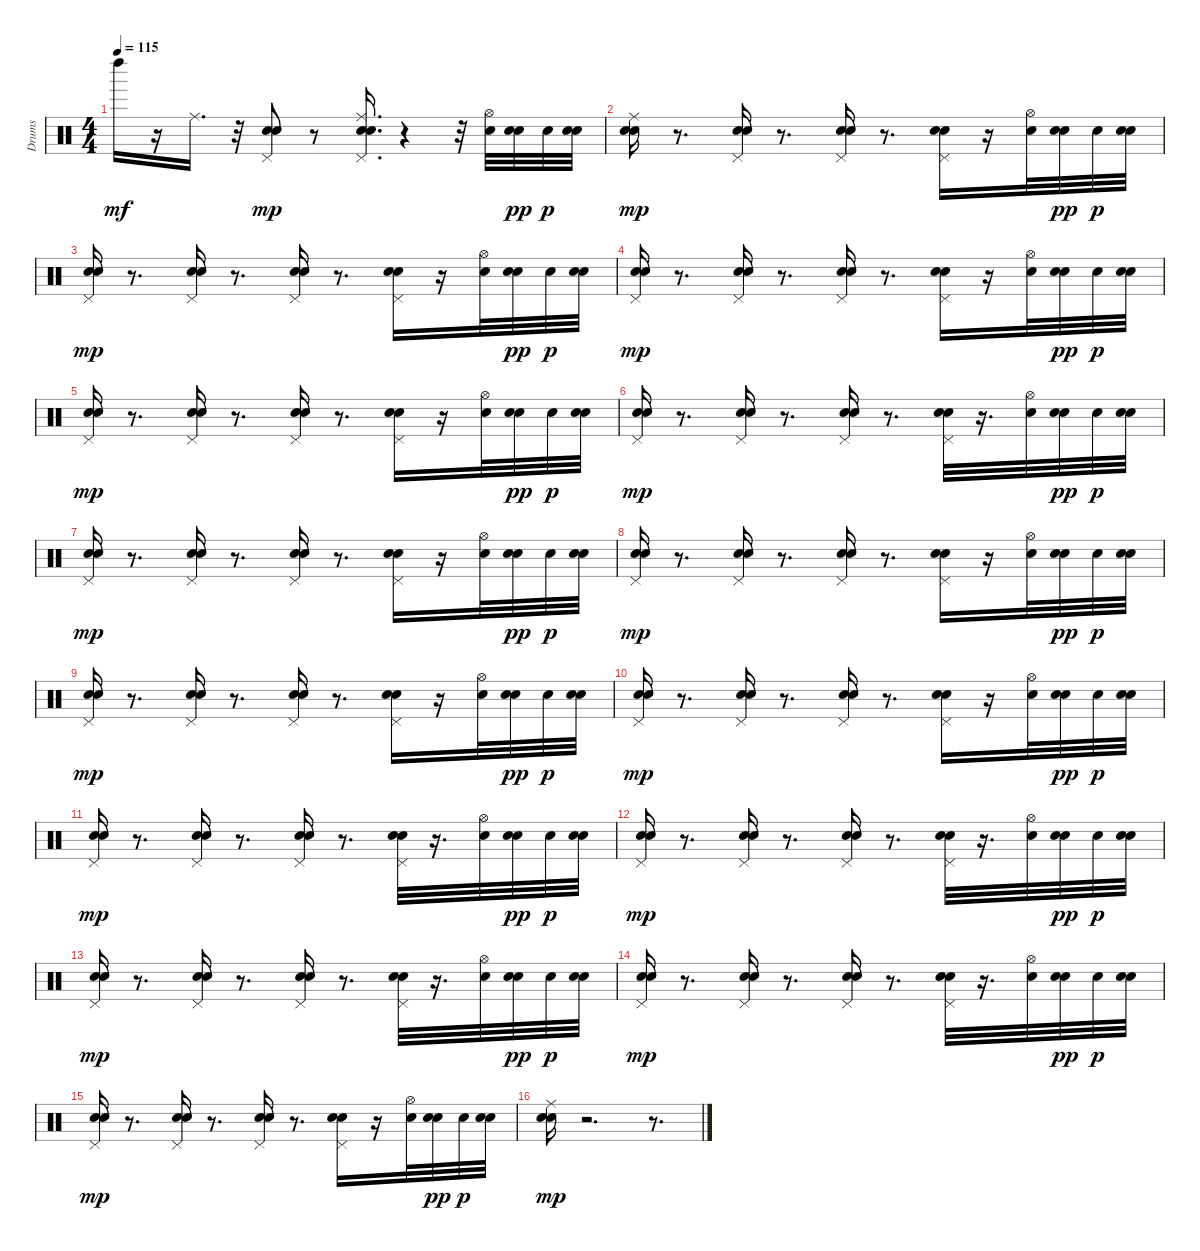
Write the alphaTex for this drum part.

\track ("Drums" "Drums") {instrument percussion}
\staff {score}
\articulation defaults
\ts (4 4)
\tempo 115
\clef neutral
\ks c "Left Maraca (hit)".16{dy mf}
r.16 "Ride (middle)".16{d} r.32 ("Snare (hit) 2" "Snare (hit) 2" "Pedal Hi-Hat (hit)").8{dy mp} r.8 ("Snare (hit) 2" "Snare (hit) 2" "Pedal Hi-Hat (hit)" "Ride (middle)").16{d} r.4 r.32 ("Snare (hit) 2" "Hi-Hat (open)").32 ("Snare (hit) 2" "Snare (hit) 2").32{dy pp} "Snare (hit) 2".32{dy p} ("Snare (hit) 2" "Snare (hit) 2").32 |
("Snare (hit) 2" "Snare (hit) 2" "Ride (middle)").16{dy mp} r.8{d} ("Snare (hit) 2" "Snare (hit) 2" "Pedal Hi-Hat (hit)").16 r.8{d} ("Snare (hit) 2" "Snare (hit) 2" "Pedal Hi-Hat (hit)").16 r.8{d} ("Snare (hit) 2" "Snare (hit) 2" "Pedal Hi-Hat (hit)").16 r.16 ("Snare (hit) 2" "Hi-Hat (open)").32 ("Snare (hit) 2" "Snare (hit) 2").32{dy pp} "Snare (hit) 2".32{dy p} ("Snare (hit) 2" "Snare (hit) 2").32 |
("Snare (hit) 2" "Snare (hit) 2" "Pedal Hi-Hat (hit)").16{dy mp} r.8{d} ("Snare (hit) 2" "Snare (hit) 2" "Pedal Hi-Hat (hit)").16 r.8{d} ("Snare (hit) 2" "Snare (hit) 2" "Pedal Hi-Hat (hit)").16 r.8{d} ("Snare (hit) 2" "Snare (hit) 2" "Pedal Hi-Hat (hit)").16 r.16 ("Snare (hit) 2" "Hi-Hat (open)").32 ("Snare (hit) 2" "Snare (hit) 2").32{dy pp} "Snare (hit) 2".32{dy p} ("Snare (hit) 2" "Snare (hit) 2").32 |
("Snare (hit) 2" "Snare (hit) 2" "Pedal Hi-Hat (hit)").16{dy mp} r.8{d} ("Snare (hit) 2" "Snare (hit) 2" "Pedal Hi-Hat (hit)").16 r.8{d} ("Snare (hit) 2" "Snare (hit) 2" "Pedal Hi-Hat (hit)").16 r.8{d} ("Snare (hit) 2" "Snare (hit) 2" "Pedal Hi-Hat (hit)").16 r.16 ("Snare (hit) 2" "Hi-Hat (open)").32 ("Snare (hit) 2" "Snare (hit) 2").32{dy pp} "Snare (hit) 2".32{dy p} ("Snare (hit) 2" "Snare (hit) 2").32 |
("Snare (hit) 2" "Snare (hit) 2" "Pedal Hi-Hat (hit)").16{dy mp} r.8{d} ("Snare (hit) 2" "Snare (hit) 2" "Pedal Hi-Hat (hit)").16 r.8{d} ("Snare (hit) 2" "Snare (hit) 2" "Pedal Hi-Hat (hit)").16 r.8{d} ("Snare (hit) 2" "Snare (hit) 2" "Pedal Hi-Hat (hit)").16 r.16 ("Snare (hit) 2" "Hi-Hat (open)").32 ("Snare (hit) 2" "Snare (hit) 2").32{dy pp} "Snare (hit) 2".32{dy p} ("Snare (hit) 2" "Snare (hit) 2").32 |
("Snare (hit) 2" "Snare (hit) 2" "Pedal Hi-Hat (hit)").16{dy mp} r.8{d} ("Snare (hit) 2" "Snare (hit) 2" "Pedal Hi-Hat (hit)").16 r.8{d} ("Snare (hit) 2" "Snare (hit) 2" "Pedal Hi-Hat (hit)").16 r.8{d} ("Snare (hit) 2" "Snare (hit) 2" "Pedal Hi-Hat (hit)").32 r.16{d} ("Snare (hit) 2" "Hi-Hat (open)").32 ("Snare (hit) 2" "Snare (hit) 2").32{dy pp} "Snare (hit) 2".32{dy p} ("Snare (hit) 2" "Snare (hit) 2").32 |
("Snare (hit) 2" "Snare (hit) 2" "Pedal Hi-Hat (hit)").16{dy mp} r.8{d} ("Snare (hit) 2" "Snare (hit) 2" "Pedal Hi-Hat (hit)").16 r.8{d} ("Snare (hit) 2" "Snare (hit) 2" "Pedal Hi-Hat (hit)").16 r.8{d} ("Snare (hit) 2" "Snare (hit) 2" "Pedal Hi-Hat (hit)").16 r.16 ("Snare (hit) 2" "Hi-Hat (open)").32 ("Snare (hit) 2" "Snare (hit) 2").32{dy pp} "Snare (hit) 2".32{dy p} ("Snare (hit) 2" "Snare (hit) 2").32 |
("Snare (hit) 2" "Snare (hit) 2" "Pedal Hi-Hat (hit)").16{dy mp} r.8{d} ("Snare (hit) 2" "Snare (hit) 2" "Pedal Hi-Hat (hit)").16 r.8{d} ("Snare (hit) 2" "Snare (hit) 2" "Pedal Hi-Hat (hit)").16 r.8{d} ("Snare (hit) 2" "Snare (hit) 2" "Pedal Hi-Hat (hit)").16 r.16 ("Snare (hit) 2" "Hi-Hat (open)").32 ("Snare (hit) 2" "Snare (hit) 2").32{dy pp} "Snare (hit) 2".32{dy p} ("Snare (hit) 2" "Snare (hit) 2").32 |
("Snare (hit) 2" "Snare (hit) 2" "Pedal Hi-Hat (hit)").16{dy mp} r.8{d} ("Snare (hit) 2" "Snare (hit) 2" "Pedal Hi-Hat (hit)").16 r.8{d} ("Snare (hit) 2" "Snare (hit) 2" "Pedal Hi-Hat (hit)").16 r.8{d} ("Snare (hit) 2" "Snare (hit) 2" "Pedal Hi-Hat (hit)").16 r.16 ("Snare (hit) 2" "Hi-Hat (open)").32 ("Snare (hit) 2" "Snare (hit) 2").32{dy pp} "Snare (hit) 2".32{dy p} ("Snare (hit) 2" "Snare (hit) 2").32 |
("Snare (hit) 2" "Snare (hit) 2" "Pedal Hi-Hat (hit)").16{dy mp} r.8{d} ("Snare (hit) 2" "Snare (hit) 2" "Pedal Hi-Hat (hit)").16 r.8{d} ("Snare (hit) 2" "Snare (hit) 2" "Pedal Hi-Hat (hit)").16 r.8{d} ("Snare (hit) 2" "Snare (hit) 2" "Pedal Hi-Hat (hit)").16 r.16 ("Snare (hit) 2" "Hi-Hat (open)").32 ("Snare (hit) 2" "Snare (hit) 2").32{dy pp} "Snare (hit) 2".32{dy p} ("Snare (hit) 2" "Snare (hit) 2").32 |
("Snare (hit) 2" "Snare (hit) 2" "Pedal Hi-Hat (hit)").16{dy mp} r.8{d} ("Snare (hit) 2" "Snare (hit) 2" "Pedal Hi-Hat (hit)").16 r.8{d} ("Snare (hit) 2" "Snare (hit) 2" "Pedal Hi-Hat (hit)").16 r.8{d} ("Snare (hit) 2" "Snare (hit) 2" "Pedal Hi-Hat (hit)").32 r.16{d} ("Snare (hit) 2" "Hi-Hat (open)").32 ("Snare (hit) 2" "Snare (hit) 2").32{dy pp} "Snare (hit) 2".32{dy p} ("Snare (hit) 2" "Snare (hit) 2").32 |
("Snare (hit) 2" "Snare (hit) 2" "Pedal Hi-Hat (hit)").16{dy mp} r.8{d} ("Snare (hit) 2" "Snare (hit) 2" "Pedal Hi-Hat (hit)").16 r.8{d} ("Snare (hit) 2" "Snare (hit) 2" "Pedal Hi-Hat (hit)").16 r.8{d} ("Snare (hit) 2" "Snare (hit) 2" "Pedal Hi-Hat (hit)").32 r.16{d} ("Snare (hit) 2" "Hi-Hat (open)").32 ("Snare (hit) 2" "Snare (hit) 2").32{dy pp} "Snare (hit) 2".32{dy p} ("Snare (hit) 2" "Snare (hit) 2").32 |
("Snare (hit) 2" "Snare (hit) 2" "Pedal Hi-Hat (hit)").16{dy mp} r.8{d} ("Snare (hit) 2" "Snare (hit) 2" "Pedal Hi-Hat (hit)").16 r.8{d} ("Snare (hit) 2" "Snare (hit) 2" "Pedal Hi-Hat (hit)").16 r.8{d} ("Snare (hit) 2" "Snare (hit) 2" "Pedal Hi-Hat (hit)").32 r.16{d} ("Snare (hit) 2" "Hi-Hat (open)").32 ("Snare (hit) 2" "Snare (hit) 2").32{dy pp} "Snare (hit) 2".32{dy p} ("Snare (hit) 2" "Snare (hit) 2").32 |
("Snare (hit) 2" "Snare (hit) 2" "Pedal Hi-Hat (hit)").16{dy mp} r.8{d} ("Snare (hit) 2" "Snare (hit) 2" "Pedal Hi-Hat (hit)").16 r.8{d} ("Snare (hit) 2" "Snare (hit) 2" "Pedal Hi-Hat (hit)").16 r.8{d} ("Snare (hit) 2" "Snare (hit) 2" "Pedal Hi-Hat (hit)").32 r.16{d} ("Snare (hit) 2" "Hi-Hat (open)").32 ("Snare (hit) 2" "Snare (hit) 2").32{dy pp} "Snare (hit) 2".32{dy p} ("Snare (hit) 2" "Snare (hit) 2").32 |
("Snare (hit) 2" "Snare (hit) 2" "Pedal Hi-Hat (hit)").16{dy mp} r.8{d} ("Snare (hit) 2" "Snare (hit) 2" "Pedal Hi-Hat (hit)").16 r.8{d} ("Snare (hit) 2" "Snare (hit) 2" "Pedal Hi-Hat (hit)").16 r.8{d} ("Snare (hit) 2" "Snare (hit) 2" "Pedal Hi-Hat (hit)").16 r.16 ("Snare (hit) 2" "Hi-Hat (open)").32 ("Snare (hit) 2" "Snare (hit) 2").32{dy pp} "Snare (hit) 2".32{dy p} ("Snare (hit) 2" "Snare (hit) 2").32 |
("Snare (hit) 2" "Snare (hit) 2" "Ride (middle)").16{dy mp} r.2{d} r.8{d}
